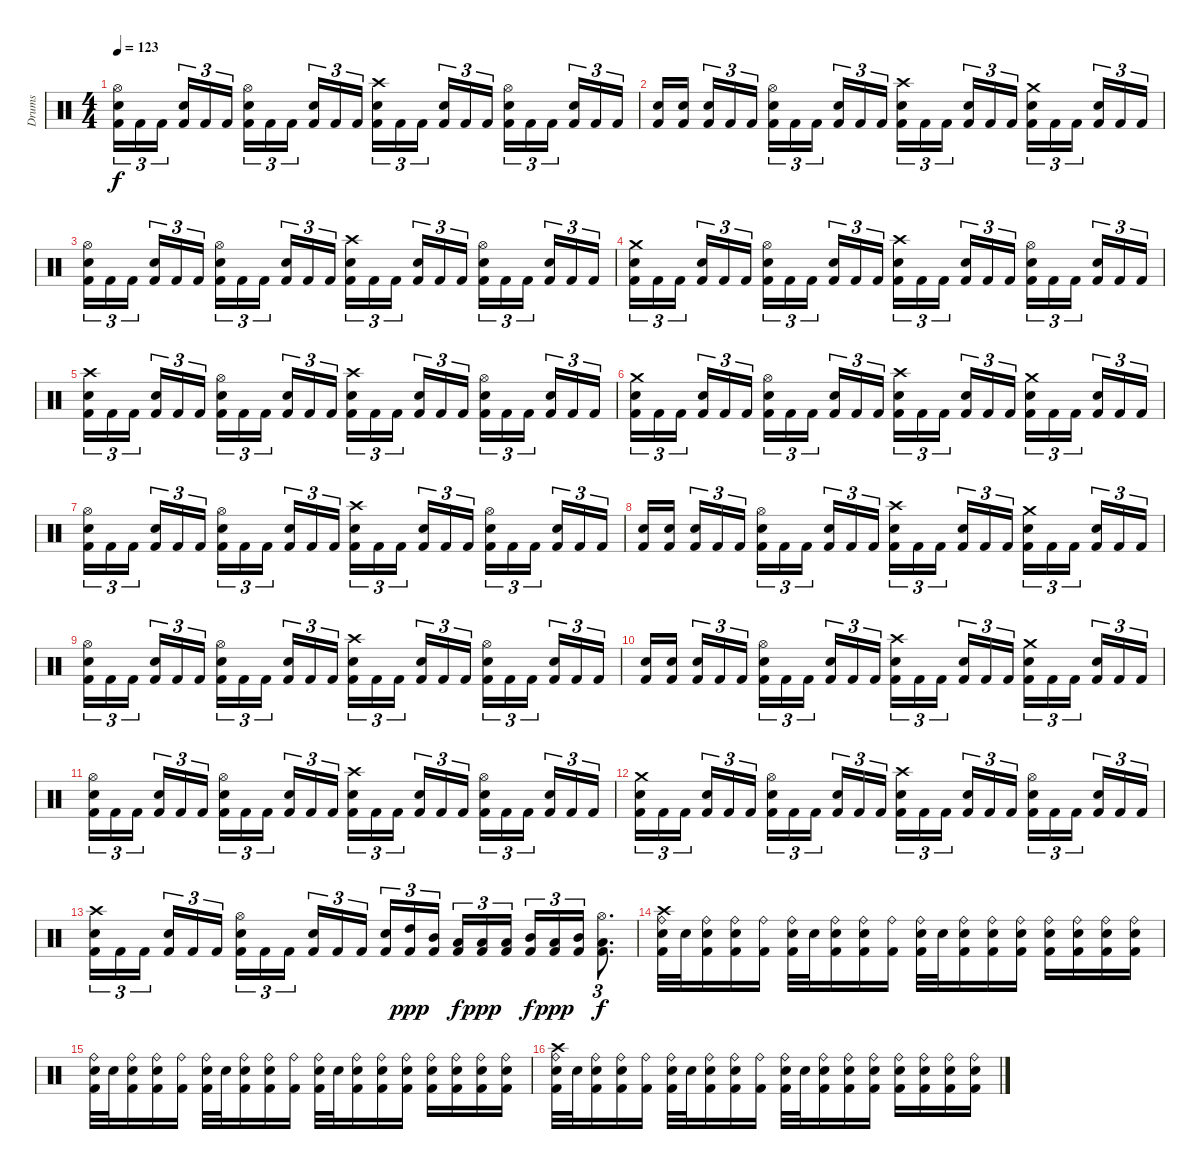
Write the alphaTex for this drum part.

\track ("Drums" "Drums") {instrument percussion}
\staff {score}
\articulation defaults
\ts (4 4)
\tempo 123
\clef neutral
\ks c
("Hi-Hat (open)" "Snare (hit) 2" "Kick (hit) 2").16{tu (3 2) dy f} "Kick (hit) 2".16{tu (3 2)} "Kick (hit) 2".16{tu (3 2) beam splitsecondary} ("Snare (hit) 2" "Kick (hit) 2").16{tu (3 2)} "Kick (hit) 2".16{tu (3 2)} "Kick (hit) 2".16{tu (3 2)} ("Hi-Hat (open)" "Snare (hit) 2" "Kick (hit) 2").16{tu (3 2)} "Kick (hit) 2".16{tu (3 2)} "Kick (hit) 2".16{tu (3 2) beam splitsecondary} ("Snare (hit) 2" "Kick (hit) 2").16{tu (3 2)} "Kick (hit) 2".16{tu (3 2)} "Kick (hit) 2".16{tu (3 2)} ("Crash high (hit)" "Snare (hit) 2" "Kick (hit) 2").16{tu (3 2)} "Kick (hit) 2".16{tu (3 2)} "Kick (hit) 2".16{tu (3 2) beam splitsecondary} ("Snare (hit) 2" "Kick (hit) 2").16{tu (3 2)} "Kick (hit) 2".16{tu (3 2)} "Kick (hit) 2".16{tu (3 2)} ("Hi-Hat (open)" "Snare (hit) 2" "Kick (hit) 2").16{tu (3 2)} "Kick (hit) 2".16{tu (3 2)} "Kick (hit) 2".16{tu (3 2) beam splitsecondary} ("Snare (hit) 2" "Kick (hit) 2").16{tu (3 2)} "Kick (hit) 2".16{tu (3 2)} "Kick (hit) 2".16{tu (3 2)} |
("Snare (hit) 2" "Kick (hit) 2").16 ("Snare (hit) 2" "Kick (hit) 2").16{beam splitsecondary} ("Snare (hit) 2" "Kick (hit) 2").16{tu (3 2)} "Kick (hit) 2".16{tu (3 2)} "Kick (hit) 2".16{tu (3 2)} ("Hi-Hat (open)" "Snare (hit) 2" "Kick (hit) 2").16{tu (3 2)} "Kick (hit) 2".16{tu (3 2)} "Kick (hit) 2".16{tu (3 2) beam splitsecondary} ("Snare (hit) 2" "Kick (hit) 2").16{tu (3 2)} "Kick (hit) 2".16{tu (3 2)} "Kick (hit) 2".16{tu (3 2)} ("Crash high (hit)" "Snare (hit) 2" "Kick (hit) 2").16{tu (3 2)} "Kick (hit) 2".16{tu (3 2)} "Kick (hit) 2".16{tu (3 2) beam splitsecondary} ("Snare (hit) 2" "Kick (hit) 2").16{tu (3 2)} "Kick (hit) 2".16{tu (3 2)} "Kick (hit) 2".16{tu (3 2)} ("Crash medium (hit)" "Snare (hit) 2" "Kick (hit) 2").16{tu (3 2)} "Kick (hit) 2".16{tu (3 2)} "Kick (hit) 2".16{tu (3 2) beam splitsecondary} ("Snare (hit) 2" "Kick (hit) 2").16{tu (3 2)} "Kick (hit) 2".16{tu (3 2)} "Kick (hit) 2".16{tu (3 2)} |
("Hi-Hat (open)" "Snare (hit) 2" "Kick (hit) 2").16{tu (3 2)} "Kick (hit) 2".16{tu (3 2)} "Kick (hit) 2".16{tu (3 2) beam splitsecondary} ("Snare (hit) 2" "Kick (hit) 2").16{tu (3 2)} "Kick (hit) 2".16{tu (3 2)} "Kick (hit) 2".16{tu (3 2)} ("Hi-Hat (open)" "Snare (hit) 2" "Kick (hit) 2").16{tu (3 2)} "Kick (hit) 2".16{tu (3 2)} "Kick (hit) 2".16{tu (3 2) beam splitsecondary} ("Snare (hit) 2" "Kick (hit) 2").16{tu (3 2)} "Kick (hit) 2".16{tu (3 2)} "Kick (hit) 2".16{tu (3 2)} ("Crash high (hit)" "Snare (hit) 2" "Kick (hit) 2").16{tu (3 2)} "Kick (hit) 2".16{tu (3 2)} "Kick (hit) 2".16{tu (3 2) beam splitsecondary} ("Snare (hit) 2" "Kick (hit) 2").16{tu (3 2)} "Kick (hit) 2".16{tu (3 2)} "Kick (hit) 2".16{tu (3 2)} ("Hi-Hat (open)" "Snare (hit) 2" "Kick (hit) 2").16{tu (3 2)} "Kick (hit) 2".16{tu (3 2)} "Kick (hit) 2".16{tu (3 2) beam splitsecondary} ("Snare (hit) 2" "Kick (hit) 2").16{tu (3 2)} "Kick (hit) 2".16{tu (3 2)} "Kick (hit) 2".16{tu (3 2)} |
("Crash medium (hit)" "Snare (hit) 2" "Kick (hit) 2").16{tu (3 2)} "Kick (hit) 2".16{tu (3 2)} "Kick (hit) 2".16{tu (3 2) beam splitsecondary} ("Snare (hit) 2" "Kick (hit) 2").16{tu (3 2)} "Kick (hit) 2".16{tu (3 2)} "Kick (hit) 2".16{tu (3 2)} ("Hi-Hat (open)" "Snare (hit) 2" "Kick (hit) 2").16{tu (3 2)} "Kick (hit) 2".16{tu (3 2)} "Kick (hit) 2".16{tu (3 2) beam splitsecondary} ("Snare (hit) 2" "Kick (hit) 2").16{tu (3 2)} "Kick (hit) 2".16{tu (3 2)} "Kick (hit) 2".16{tu (3 2)} ("Crash high (hit)" "Snare (hit) 2" "Kick (hit) 2").16{tu (3 2)} "Kick (hit) 2".16{tu (3 2)} "Kick (hit) 2".16{tu (3 2) beam splitsecondary} ("Snare (hit) 2" "Kick (hit) 2").16{tu (3 2)} "Kick (hit) 2".16{tu (3 2)} "Kick (hit) 2".16{tu (3 2)} ("Hi-Hat (open)" "Snare (hit) 2" "Kick (hit) 2").16{tu (3 2)} "Kick (hit) 2".16{tu (3 2)} "Kick (hit) 2".16{tu (3 2) beam splitsecondary} ("Snare (hit) 2" "Kick (hit) 2").16{tu (3 2)} "Kick (hit) 2".16{tu (3 2)} "Kick (hit) 2".16{tu (3 2)} |
("Crash high (hit)" "Snare (hit) 2" "Kick (hit) 2").16{tu (3 2)} "Kick (hit) 2".16{tu (3 2)} "Kick (hit) 2".16{tu (3 2) beam splitsecondary} ("Snare (hit) 2" "Kick (hit) 2").16{tu (3 2)} "Kick (hit) 2".16{tu (3 2)} "Kick (hit) 2".16{tu (3 2)} ("Hi-Hat (open)" "Snare (hit) 2" "Kick (hit) 2").16{tu (3 2)} "Kick (hit) 2".16{tu (3 2)} "Kick (hit) 2".16{tu (3 2) beam splitsecondary} ("Snare (hit) 2" "Kick (hit) 2").16{tu (3 2)} "Kick (hit) 2".16{tu (3 2)} "Kick (hit) 2".16{tu (3 2)} ("Crash high (hit)" "Snare (hit) 2" "Kick (hit) 2").16{tu (3 2)} "Kick (hit) 2".16{tu (3 2)} "Kick (hit) 2".16{tu (3 2) beam splitsecondary} ("Snare (hit) 2" "Kick (hit) 2").16{tu (3 2)} "Kick (hit) 2".16{tu (3 2)} "Kick (hit) 2".16{tu (3 2)} ("Hi-Hat (open)" "Snare (hit) 2" "Kick (hit) 2").16{tu (3 2)} "Kick (hit) 2".16{tu (3 2)} "Kick (hit) 2".16{tu (3 2) beam splitsecondary} ("Snare (hit) 2" "Kick (hit) 2").16{tu (3 2)} "Kick (hit) 2".16{tu (3 2)} "Kick (hit) 2".16{tu (3 2)} |
("Crash medium (hit)" "Snare (hit) 2" "Kick (hit) 2").16{tu (3 2)} "Kick (hit) 2".16{tu (3 2)} "Kick (hit) 2".16{tu (3 2) beam splitsecondary} ("Snare (hit) 2" "Kick (hit) 2").16{tu (3 2)} "Kick (hit) 2".16{tu (3 2)} "Kick (hit) 2".16{tu (3 2)} ("Hi-Hat (open)" "Snare (hit) 2" "Kick (hit) 2").16{tu (3 2)} "Kick (hit) 2".16{tu (3 2)} "Kick (hit) 2".16{tu (3 2) beam splitsecondary} ("Snare (hit) 2" "Kick (hit) 2").16{tu (3 2)} "Kick (hit) 2".16{tu (3 2)} "Kick (hit) 2".16{tu (3 2)} ("Crash high (hit)" "Snare (hit) 2" "Kick (hit) 2").16{tu (3 2)} "Kick (hit) 2".16{tu (3 2)} "Kick (hit) 2".16{tu (3 2) beam splitsecondary} ("Snare (hit) 2" "Kick (hit) 2").16{tu (3 2)} "Kick (hit) 2".16{tu (3 2)} "Kick (hit) 2".16{tu (3 2)} ("Crash medium (hit)" "Snare (hit) 2" "Kick (hit) 2").16{tu (3 2)} "Kick (hit) 2".16{tu (3 2)} "Kick (hit) 2".16{tu (3 2) beam splitsecondary} ("Snare (hit) 2" "Kick (hit) 2").16{tu (3 2)} "Kick (hit) 2".16{tu (3 2)} "Kick (hit) 2".16{tu (3 2)} |
("Hi-Hat (open)" "Snare (hit) 2" "Kick (hit) 2").16{tu (3 2)} "Kick (hit) 2".16{tu (3 2)} "Kick (hit) 2".16{tu (3 2) beam splitsecondary} ("Snare (hit) 2" "Kick (hit) 2").16{tu (3 2)} "Kick (hit) 2".16{tu (3 2)} "Kick (hit) 2".16{tu (3 2)} ("Hi-Hat (open)" "Snare (hit) 2" "Kick (hit) 2").16{tu (3 2)} "Kick (hit) 2".16{tu (3 2)} "Kick (hit) 2".16{tu (3 2) beam splitsecondary} ("Snare (hit) 2" "Kick (hit) 2").16{tu (3 2)} "Kick (hit) 2".16{tu (3 2)} "Kick (hit) 2".16{tu (3 2)} ("Crash high (hit)" "Snare (hit) 2" "Kick (hit) 2").16{tu (3 2)} "Kick (hit) 2".16{tu (3 2)} "Kick (hit) 2".16{tu (3 2) beam splitsecondary} ("Snare (hit) 2" "Kick (hit) 2").16{tu (3 2)} "Kick (hit) 2".16{tu (3 2)} "Kick (hit) 2".16{tu (3 2)} ("Hi-Hat (open)" "Snare (hit) 2" "Kick (hit) 2").16{tu (3 2)} "Kick (hit) 2".16{tu (3 2)} "Kick (hit) 2".16{tu (3 2) beam splitsecondary} ("Snare (hit) 2" "Kick (hit) 2").16{tu (3 2)} "Kick (hit) 2".16{tu (3 2)} "Kick (hit) 2".16{tu (3 2)} |
("Snare (hit) 2" "Kick (hit) 2").16 ("Snare (hit) 2" "Kick (hit) 2").16{beam splitsecondary} ("Snare (hit) 2" "Kick (hit) 2").16{tu (3 2)} "Kick (hit) 2".16{tu (3 2)} "Kick (hit) 2".16{tu (3 2)} ("Hi-Hat (open)" "Snare (hit) 2" "Kick (hit) 2").16{tu (3 2)} "Kick (hit) 2".16{tu (3 2)} "Kick (hit) 2".16{tu (3 2) beam splitsecondary} ("Snare (hit) 2" "Kick (hit) 2").16{tu (3 2)} "Kick (hit) 2".16{tu (3 2)} "Kick (hit) 2".16{tu (3 2)} ("Crash high (hit)" "Snare (hit) 2" "Kick (hit) 2").16{tu (3 2)} "Kick (hit) 2".16{tu (3 2)} "Kick (hit) 2".16{tu (3 2) beam splitsecondary} ("Snare (hit) 2" "Kick (hit) 2").16{tu (3 2)} "Kick (hit) 2".16{tu (3 2)} "Kick (hit) 2".16{tu (3 2)} ("Crash medium (hit)" "Snare (hit) 2" "Kick (hit) 2").16{tu (3 2)} "Kick (hit) 2".16{tu (3 2)} "Kick (hit) 2".16{tu (3 2) beam splitsecondary} ("Snare (hit) 2" "Kick (hit) 2").16{tu (3 2)} "Kick (hit) 2".16{tu (3 2)} "Kick (hit) 2".16{tu (3 2)} |
("Hi-Hat (open)" "Snare (hit) 2" "Kick (hit) 2").16{tu (3 2)} "Kick (hit) 2".16{tu (3 2)} "Kick (hit) 2".16{tu (3 2) beam splitsecondary} ("Snare (hit) 2" "Kick (hit) 2").16{tu (3 2)} "Kick (hit) 2".16{tu (3 2)} "Kick (hit) 2".16{tu (3 2)} ("Hi-Hat (open)" "Snare (hit) 2" "Kick (hit) 2").16{tu (3 2)} "Kick (hit) 2".16{tu (3 2)} "Kick (hit) 2".16{tu (3 2) beam splitsecondary} ("Snare (hit) 2" "Kick (hit) 2").16{tu (3 2)} "Kick (hit) 2".16{tu (3 2)} "Kick (hit) 2".16{tu (3 2)} ("Crash high (hit)" "Snare (hit) 2" "Kick (hit) 2").16{tu (3 2)} "Kick (hit) 2".16{tu (3 2)} "Kick (hit) 2".16{tu (3 2) beam splitsecondary} ("Snare (hit) 2" "Kick (hit) 2").16{tu (3 2)} "Kick (hit) 2".16{tu (3 2)} "Kick (hit) 2".16{tu (3 2)} ("Hi-Hat (open)" "Snare (hit) 2" "Kick (hit) 2").16{tu (3 2)} "Kick (hit) 2".16{tu (3 2)} "Kick (hit) 2".16{tu (3 2) beam splitsecondary} ("Snare (hit) 2" "Kick (hit) 2").16{tu (3 2)} "Kick (hit) 2".16{tu (3 2)} "Kick (hit) 2".16{tu (3 2)} |
("Snare (hit) 2" "Kick (hit) 2").16 ("Snare (hit) 2" "Kick (hit) 2").16{beam splitsecondary} ("Snare (hit) 2" "Kick (hit) 2").16{tu (3 2)} "Kick (hit) 2".16{tu (3 2)} "Kick (hit) 2".16{tu (3 2)} ("Hi-Hat (open)" "Snare (hit) 2" "Kick (hit) 2").16{tu (3 2)} "Kick (hit) 2".16{tu (3 2)} "Kick (hit) 2".16{tu (3 2) beam splitsecondary} ("Snare (hit) 2" "Kick (hit) 2").16{tu (3 2)} "Kick (hit) 2".16{tu (3 2)} "Kick (hit) 2".16{tu (3 2)} ("Crash high (hit)" "Snare (hit) 2" "Kick (hit) 2").16{tu (3 2)} "Kick (hit) 2".16{tu (3 2)} "Kick (hit) 2".16{tu (3 2) beam splitsecondary} ("Snare (hit) 2" "Kick (hit) 2").16{tu (3 2)} "Kick (hit) 2".16{tu (3 2)} "Kick (hit) 2".16{tu (3 2)} ("Crash medium (hit)" "Snare (hit) 2" "Kick (hit) 2").16{tu (3 2)} "Kick (hit) 2".16{tu (3 2)} "Kick (hit) 2".16{tu (3 2) beam splitsecondary} ("Snare (hit) 2" "Kick (hit) 2").16{tu (3 2)} "Kick (hit) 2".16{tu (3 2)} "Kick (hit) 2".16{tu (3 2)} |
("Hi-Hat (open)" "Snare (hit) 2" "Kick (hit) 2").16{tu (3 2)} "Kick (hit) 2".16{tu (3 2)} "Kick (hit) 2".16{tu (3 2) beam splitsecondary} ("Snare (hit) 2" "Kick (hit) 2").16{tu (3 2)} "Kick (hit) 2".16{tu (3 2)} "Kick (hit) 2".16{tu (3 2)} ("Hi-Hat (open)" "Snare (hit) 2" "Kick (hit) 2").16{tu (3 2)} "Kick (hit) 2".16{tu (3 2)} "Kick (hit) 2".16{tu (3 2) beam splitsecondary} ("Snare (hit) 2" "Kick (hit) 2").16{tu (3 2)} "Kick (hit) 2".16{tu (3 2)} "Kick (hit) 2".16{tu (3 2)} ("Crash high (hit)" "Snare (hit) 2" "Kick (hit) 2").16{tu (3 2)} "Kick (hit) 2".16{tu (3 2)} "Kick (hit) 2".16{tu (3 2) beam splitsecondary} ("Snare (hit) 2" "Kick (hit) 2").16{tu (3 2)} "Kick (hit) 2".16{tu (3 2)} "Kick (hit) 2".16{tu (3 2)} ("Hi-Hat (open)" "Snare (hit) 2" "Kick (hit) 2").16{tu (3 2)} "Kick (hit) 2".16{tu (3 2)} "Kick (hit) 2".16{tu (3 2) beam splitsecondary} ("Snare (hit) 2" "Kick (hit) 2").16{tu (3 2)} "Kick (hit) 2".16{tu (3 2)} "Kick (hit) 2".16{tu (3 2)} |
("Crash medium (hit)" "Snare (hit) 2" "Kick (hit) 2").16{tu (3 2)} "Kick (hit) 2".16{tu (3 2)} "Kick (hit) 2".16{tu (3 2) beam splitsecondary} ("Snare (hit) 2" "Kick (hit) 2").16{tu (3 2)} "Kick (hit) 2".16{tu (3 2)} "Kick (hit) 2".16{tu (3 2)} ("Hi-Hat (open)" "Snare (hit) 2" "Kick (hit) 2").16{tu (3 2)} "Kick (hit) 2".16{tu (3 2)} "Kick (hit) 2".16{tu (3 2) beam splitsecondary} ("Snare (hit) 2" "Kick (hit) 2").16{tu (3 2)} "Kick (hit) 2".16{tu (3 2)} "Kick (hit) 2".16{tu (3 2)} ("Crash high (hit)" "Snare (hit) 2" "Kick (hit) 2").16{tu (3 2)} "Kick (hit) 2".16{tu (3 2)} "Kick (hit) 2".16{tu (3 2) beam splitsecondary} ("Snare (hit) 2" "Kick (hit) 2").16{tu (3 2)} "Kick (hit) 2".16{tu (3 2)} "Kick (hit) 2".16{tu (3 2)} ("Hi-Hat (open)" "Snare (hit) 2" "Kick (hit) 2").16{tu (3 2)} "Kick (hit) 2".16{tu (3 2)} "Kick (hit) 2".16{tu (3 2) beam splitsecondary} ("Snare (hit) 2" "Kick (hit) 2").16{tu (3 2)} "Kick (hit) 2".16{tu (3 2)} "Kick (hit) 2".16{tu (3 2)} |
("Crash high (hit)" "Snare (hit) 2" "Kick (hit) 2").16{tu (3 2)} "Kick (hit) 2".16{tu (3 2)} "Kick (hit) 2".16{tu (3 2) beam splitsecondary} ("Snare (hit) 2" "Kick (hit) 2").16{tu (3 2)} "Kick (hit) 2".16{tu (3 2)} "Kick (hit) 2".16{tu (3 2)} ("Hi-Hat (open)" "Snare (hit) 2" "Kick (hit) 2").16{tu (3 2)} "Kick (hit) 2".16{tu (3 2)} "Kick (hit) 2".16{tu (3 2) beam splitsecondary} ("Snare (hit) 2" "Kick (hit) 2").16{tu (3 2)} "Kick (hit) 2".16{tu (3 2)} "Kick (hit) 2".16{tu (3 2)} ("Snare (hit) 2" "Kick (hit) 2").16{tu (3 2)} ("High Tom (hit)" "Kick (hit) 2").16{tu (3 2) dy ppp} ("Mid Tom (hit)" "Kick (hit) 2").16{tu (3 2) beam splitsecondary} ("Low Tom (hit)" "Kick (hit) 2").16{tu (3 2) dy f} ("Low Floor Tom (hit)" "Kick (hit) 2").16{tu (3 2) dy ppp} ("Low Tom (hit)" "Kick (hit) 2").16{tu (3 2)} ("Mid Tom (hit)" "Kick (hit) 2").16{tu (3 2) dy f} ("Low Tom (hit)" "Kick (hit) 2").16{tu (3 2) dy ppp} ("Mid Tom (hit)" "Kick (hit) 2").16{tu (3 2)} ("Hi-Hat (open)" "Low Tom (hit)" "Kick (hit) 2").8{d tu (3 2) dy f} |
("Crash high (hit)" "Ride (bell)" "Snare (hit) 2" "Kick (hit) 2").32 "Snare (hit) 2".32 ("Ride (bell)" "Snare (hit) 2" "Kick (hit) 2").16 ("Ride (bell)" "Snare (hit) 2" "Kick (hit) 2").16 ("Ride (bell)" "Kick (hit) 2").16 ("Ride (bell)" "Snare (hit) 2" "Kick (hit) 2").32 "Snare (hit) 2".32 ("Ride (bell)" "Snare (hit) 2" "Kick (hit) 2").16 ("Ride (bell)" "Snare (hit) 2" "Kick (hit) 2").16 ("Ride (bell)" "Kick (hit) 2").16 ("Ride (bell)" "Snare (hit) 2" "Kick (hit) 2").32 "Snare (hit) 2".32 ("Ride (bell)" "Snare (hit) 2" "Kick (hit) 2").16 ("Ride (bell)" "Snare (hit) 2" "Kick (hit) 2").16 ("Ride (bell)" "Snare (hit) 2" "Kick (hit) 2").16 ("Ride (bell)" "Snare (hit) 2" "Kick (hit) 2").16 ("Ride (bell)" "Snare (hit) 2" "Kick (hit) 2").16 ("Ride (bell)" "Snare (hit) 2" "Kick (hit) 2").16 ("Ride (bell)" "Snare (hit) 2" "Kick (hit) 2").16 |
("Ride (bell)" "Snare (hit) 2" "Kick (hit) 2").32 "Snare (hit) 2".32 ("Ride (bell)" "Snare (hit) 2" "Kick (hit) 2").16 ("Ride (bell)" "Snare (hit) 2" "Kick (hit) 2").16 ("Ride (bell)" "Kick (hit) 2").16 ("Ride (bell)" "Snare (hit) 2" "Kick (hit) 2").32 "Snare (hit) 2".32 ("Ride (bell)" "Snare (hit) 2" "Kick (hit) 2").16 ("Ride (bell)" "Snare (hit) 2" "Kick (hit) 2").16 ("Ride (bell)" "Kick (hit) 2").16 ("Ride (bell)" "Snare (hit) 2" "Kick (hit) 2").32 "Snare (hit) 2".32 ("Ride (bell)" "Snare (hit) 2" "Kick (hit) 2").16 ("Ride (bell)" "Snare (hit) 2" "Kick (hit) 2").16 ("Ride (bell)" "Snare (hit) 2" "Kick (hit) 2").16 ("Ride (bell)" "Snare (hit) 2" "Kick (hit) 2").16 ("Ride (bell)" "Snare (hit) 2" "Kick (hit) 2").16 ("Ride (bell)" "Snare (hit) 2" "Kick (hit) 2").16 ("Ride (bell)" "Snare (hit) 2" "Kick (hit) 2").16 |
("Crash high (hit)" "Ride (bell)" "Snare (hit) 2" "Kick (hit) 2").32 "Snare (hit) 2".32 ("Ride (bell)" "Snare (hit) 2" "Kick (hit) 2").16 ("Ride (bell)" "Snare (hit) 2" "Kick (hit) 2").16 ("Ride (bell)" "Kick (hit) 2").16 ("Ride (bell)" "Snare (hit) 2" "Kick (hit) 2").32 "Snare (hit) 2".32 ("Ride (bell)" "Snare (hit) 2" "Kick (hit) 2").16 ("Ride (bell)" "Snare (hit) 2" "Kick (hit) 2").16 ("Ride (bell)" "Kick (hit) 2").16 ("Ride (bell)" "Snare (hit) 2" "Kick (hit) 2").32 "Snare (hit) 2".32 ("Ride (bell)" "Snare (hit) 2" "Kick (hit) 2").16 ("Ride (bell)" "Snare (hit) 2" "Kick (hit) 2").16 ("Ride (bell)" "Snare (hit) 2" "Kick (hit) 2").16 ("Ride (bell)" "Snare (hit) 2" "Kick (hit) 2").16 ("Ride (bell)" "Snare (hit) 2" "Kick (hit) 2").16 ("Ride (bell)" "Snare (hit) 2" "Kick (hit) 2").16 ("Ride (bell)" "Snare (hit) 2" "Kick (hit) 2").16
